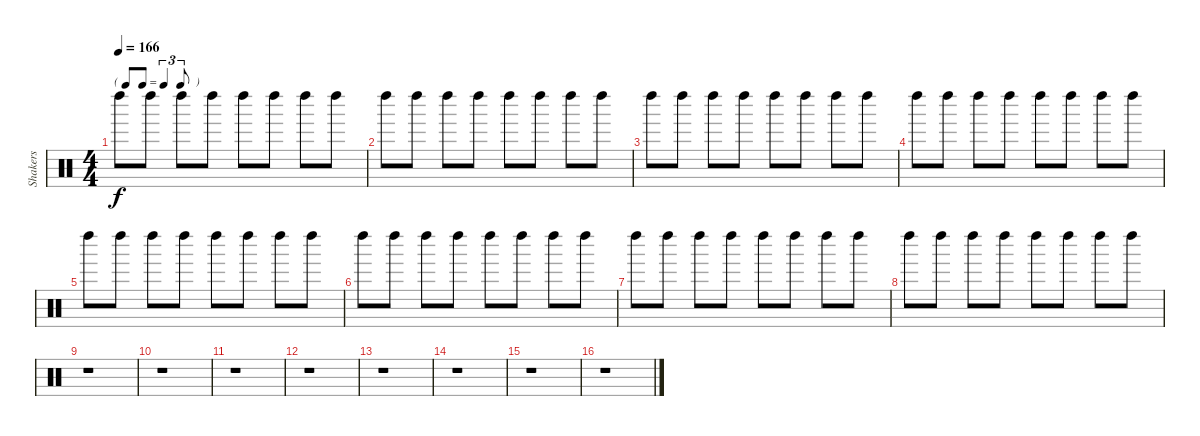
\track ("Shakers" "Shakers") {instrument percussion}
\staff {score}
\articulation defaults
\ts (4 4)
\tf triplet8th
\tempo 166
\clef neutral
\ks c "Left Maraca (hit)".8{dy f} "Left Maraca (hit)".8 "Left Maraca (hit)".8 "Left Maraca (hit)".8 "Left Maraca (hit)".8 "Left Maraca (hit)".8 "Left Maraca (hit)".8 "Left Maraca (hit)".8
|
"Left Maraca (hit)".8 "Left Maraca (hit)".8 "Left Maraca (hit)".8 "Left Maraca (hit)".8 "Left Maraca (hit)".8 "Left Maraca (hit)".8 "Left Maraca (hit)".8 "Left Maraca (hit)".8 |
"Left Maraca (hit)".8 "Left Maraca (hit)".8 "Left Maraca (hit)".8 "Left Maraca (hit)".8 "Left Maraca (hit)".8 "Left Maraca (hit)".8 "Left Maraca (hit)".8 "Left Maraca (hit)".8 |
"Left Maraca (hit)".8 "Left Maraca (hit)".8 "Left Maraca (hit)".8 "Left Maraca (hit)".8 "Left Maraca (hit)".8 "Left Maraca (hit)".8 "Left Maraca (hit)".8 "Left Maraca (hit)".8 |
"Left Maraca (hit)".8 "Left Maraca (hit)".8 "Left Maraca (hit)".8 "Left Maraca (hit)".8 "Left Maraca (hit)".8 "Left Maraca (hit)".8 "Left Maraca (hit)".8 "Left Maraca (hit)".8 |
"Left Maraca (hit)".8 "Left Maraca (hit)".8 "Left Maraca (hit)".8 "Left Maraca (hit)".8 "Left Maraca (hit)".8 "Left Maraca (hit)".8 "Left Maraca (hit)".8 "Left Maraca (hit)".8 |
"Left Maraca (hit)".8 "Left Maraca (hit)".8 "Left Maraca (hit)".8 "Left Maraca (hit)".8 "Left Maraca (hit)".8 "Left Maraca (hit)".8 "Left Maraca (hit)".8 "Left Maraca (hit)".8 |
"Left Maraca (hit)".8 "Left Maraca (hit)".8 "Left Maraca (hit)".8 "Left Maraca (hit)".8 "Left Maraca (hit)".8 "Left Maraca (hit)".8 "Left Maraca (hit)".8 "Left Maraca (hit)".8 |
r.1 |
r.1 |
r.1 |
r.1 |
r.1 |
r.1 |
r.1 |
r.1
